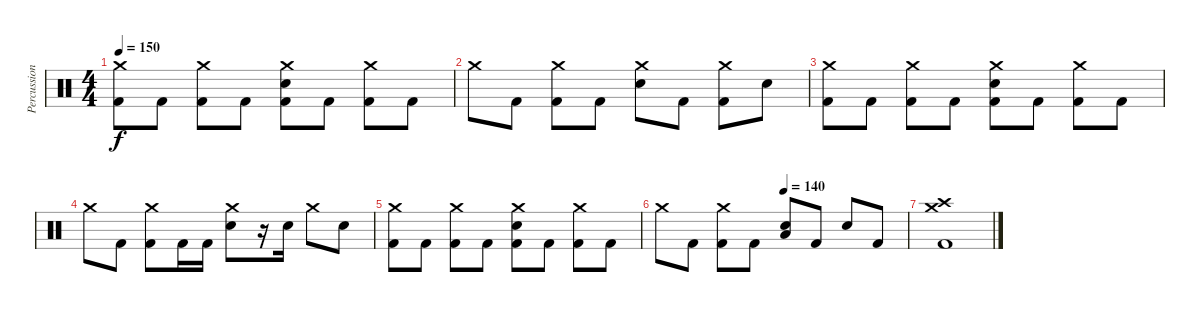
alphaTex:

\track ("Percussion" "Percussion") {instrument percussion}
\staff {score}
\articulation defaults
\ts (4 4)
\tempo 150
\clef neutral
\ks c
("Crash medium (hit)" "Kick (hit) 2").8{dy f} "Kick (hit) 2".8 ("Crash medium (hit)" "Kick (hit) 2").8 "Kick (hit) 2".8 ("Crash medium (hit)" "Snare (hit) 2" "Kick (hit) 2").8 "Kick (hit) 2".8 ("Crash medium (hit)" "Kick (hit) 2").8 "Kick (hit) 2".8 |
"Crash medium (hit)".8 "Kick (hit) 2".8 ("Crash medium (hit)" "Kick (hit) 2").8 "Kick (hit) 2".8 ("Crash medium (hit)" "Snare (hit) 2").8 "Kick (hit) 2".8 ("Crash medium (hit)" "Kick (hit) 2").8 "Snare (hit) 2".8 |
("Crash medium (hit)" "Kick (hit) 2").8 "Kick (hit) 2".8 ("Crash medium (hit)" "Kick (hit) 2").8 "Kick (hit) 2".8 ("Crash medium (hit)" "Snare (hit) 2" "Kick (hit) 2").8 "Kick (hit) 2".8 ("Crash medium (hit)" "Kick (hit) 2").8 "Kick (hit) 2".8 |
"Crash medium (hit)".8 "Kick (hit) 2".8 ("Crash medium (hit)" "Kick (hit) 2").8 "Kick (hit) 2".16 "Kick (hit) 2".16 ("Crash medium (hit)" "Snare (hit) 2").8 r.16 "Snare (hit) 2".16 "Crash medium (hit)".8 "Snare (hit) 2".8 |
("Crash medium (hit)" "Kick (hit) 2").8 "Kick (hit) 2".8 ("Crash medium (hit)" "Kick (hit) 2").8 "Kick (hit) 2".8 ("Crash medium (hit)" "Snare (hit) 2" "Kick (hit) 2").8 "Kick (hit) 2".8 ("Crash medium (hit)" "Kick (hit) 2").8 "Kick (hit) 2".8 |
\tempo (140 0.5)
"Crash medium (hit)".8 "Kick (hit) 2".8 ("Crash medium (hit)" "Kick (hit) 2").8 "Kick (hit) 2".8 ("Low Floor Tom (hit)" "Snare (hit) 2").8 "Kick (hit) 2".8 "Snare (hit) 2".8 "Kick (hit) 2".8 |
("Crash high (hit)" "Crash medium (hit)" "Kick (hit) 2").1
